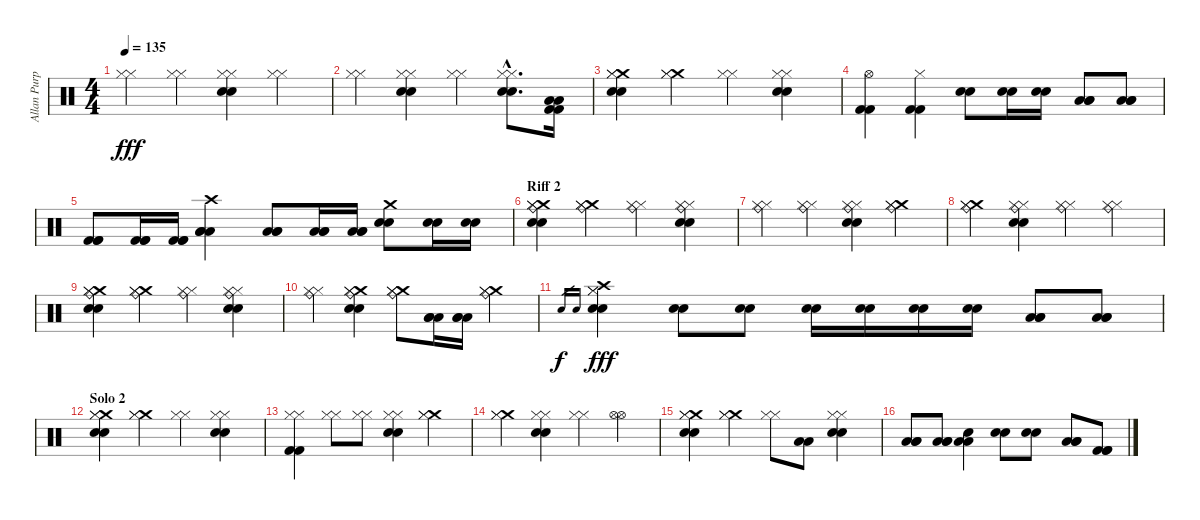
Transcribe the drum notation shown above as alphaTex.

\track ("Allan Purple" "Allan Purp") {instrument percussion}
\staff {score}
\articulation defaults
\ts (4 4)
\tempo 135
\clef neutral
\ks c
("Hi-Hat (closed)" "Hi-Hat (closed)").4{dy fff} ("Hi-Hat (closed)" "Hi-Hat (closed)").4 ("Hi-Hat (closed)" "Hi-Hat (closed)" "Electric Snare (hit)" "Electric Snare (hit)").4 ("Hi-Hat (closed)" "Hi-Hat (closed)").4 |
("Hi-Hat (closed)" "Hi-Hat (closed)").4 ("Hi-Hat (closed)" "Hi-Hat (closed)" "Electric Snare (hit)" "Electric Snare (hit)").4 ("Hi-Hat (closed)" "Hi-Hat (closed)").4 ("Hi-Hat (closed)"{hac} "Hi-Hat (closed)"{hac} "Electric Snare (hit)"{hac} "Electric Snare (hit)"{hac}).8{d} ("Kick (hit) 2" "Kick (hit) 2" "Low Tom (hit)" "Low Tom (hit)").16 |
("Crash medium (hit)" "Hi-Hat (closed)" "Hi-Hat (closed)" "Electric Snare (hit)" "Electric Snare (hit)").4 ("Crash medium (hit)" "Hi-Hat (closed)" "Hi-Hat (closed)").4 ("Hi-Hat (closed)" "Hi-Hat (closed)").4 ("Hi-Hat (closed)" "Hi-Hat (closed)" "Electric Snare (hit)" "Electric Snare (hit)").4 |
("Hi-Hat (open)" "Kick (hit) 2" "Kick (hit) 2").4 ("Hi-Hat (closed)" "Kick (hit) 2" "Kick (hit) 2").4 ("Electric Snare (hit)" "Electric Snare (hit)").8 ("Electric Snare (hit)" "Electric Snare (hit)").16 ("Electric Snare (hit)" "Electric Snare (hit)").16 ("Low Tom (hit)" "Low Tom (hit)" "Low Tom (hit)").8 ("Low Tom (hit)" "Low Tom (hit)" "Low Tom (hit)").8 |
("Kick (hit) 2" "Kick (hit) 2" "Kick (hit) 2").8 ("Kick (hit) 2" "Kick (hit) 2" "Kick (hit) 2").16 ("Kick (hit) 2" "Kick (hit) 2" "Kick (hit) 2").16 ("Crash high (hit)" "Low Tom (hit)" "Low Tom (hit)" "Low Tom (hit)").4 ("Low Tom (hit)" "Low Tom (hit)" "Low Tom (hit)").8 ("Low Floor Tom (hit)" "Low Floor Tom (hit)" "Low Floor Tom (hit)").16 ("Low Floor Tom (hit)" "Low Floor Tom (hit)" "Low Floor Tom (hit)").16 ("Crash medium (hit)" "Electric Snare (hit)" "Electric Snare (hit)").8 ("Electric Snare (hit)" "Electric Snare (hit)").16 ("Electric Snare (hit)" "Electric Snare (hit)").16 |
\section ("" "Riff 2")
("Crash medium (hit)" "Ride (bell)" "Hi-Hat (closed)" "Hi-Hat (closed)" "Electric Snare (hit)" "Electric Snare (hit)").4 ("Crash medium (hit)" "Ride (bell)" "Hi-Hat (closed)" "Hi-Hat (closed)").4 ("Ride (bell)" "Hi-Hat (closed)" "Hi-Hat (closed)").4 ("Ride (bell)" "Hi-Hat (closed)" "Hi-Hat (closed)" "Electric Snare (hit)" "Electric Snare (hit)").4 |
("Ride (bell)" "Hi-Hat (closed)" "Hi-Hat (closed)").4 ("Ride (bell)" "Hi-Hat (closed)" "Hi-Hat (closed)").4 ("Ride (bell)" "Hi-Hat (closed)" "Hi-Hat (closed)" "Electric Snare (hit)" "Electric Snare (hit)").4 ("Crash medium (hit)" "Ride (bell)" "Hi-Hat (closed)" "Hi-Hat (closed)").4 |
("Crash medium (hit)" "Ride (bell)" "Hi-Hat (closed)" "Hi-Hat (closed)").4 ("Ride (bell)" "Hi-Hat (closed)" "Hi-Hat (closed)" "Electric Snare (hit)" "Electric Snare (hit)").4 ("Ride (bell)" "Hi-Hat (closed)" "Hi-Hat (closed)").4 ("Ride (bell)" "Hi-Hat (closed)" "Hi-Hat (closed)").4 |
("Crash medium (hit)" "Ride (bell)" "Hi-Hat (closed)" "Hi-Hat (closed)" "Electric Snare (hit)" "Electric Snare (hit)").4 ("Crash medium (hit)" "Ride (bell)" "Hi-Hat (closed)" "Hi-Hat (closed)").4 ("Ride (bell)" "Hi-Hat (closed)" "Hi-Hat (closed)").4 ("Ride (bell)" "Hi-Hat (closed)" "Hi-Hat (closed)" "Electric Snare (hit)" "Electric Snare (hit)").4 |
("Ride (bell)" "Hi-Hat (closed)" "Hi-Hat (closed)").4 ("Crash medium (hit)" "Ride (bell)" "Hi-Hat (closed)" "Hi-Hat (closed)" "Electric Snare (hit)" "Electric Snare (hit)").4 ("Crash medium (hit)" "Ride (bell)" "Hi-Hat (closed)" "Hi-Hat (closed)").8 ("Low Tom (hit)" "Low Tom (hit)" "Low Tom (hit)").16 ("Low Tom (hit)" "Low Tom (hit)" "Low Tom (hit)").16 ("Crash medium (hit)" "Ride (bell)" "Hi-Hat (closed)" "Hi-Hat (closed)").4 |
"Electric Snare (hit)".16{gr dy f} "Electric Snare (hit)".16{gr} ("Crash high (hit)" "Hi-Hat (closed)" "Hi-Hat (closed)" "Electric Snare (hit)" "Electric Snare (hit)").4{dy fff} ("Electric Snare (hit)" "Electric Snare (hit)").8 ("Electric Snare (hit)" "Electric Snare (hit)").8 ("Electric Snare (hit)" "Electric Snare (hit)").16 ("Electric Snare (hit)" "Electric Snare (hit)").16 ("Electric Snare (hit)" "Electric Snare (hit)").16 ("Electric Snare (hit)" "Electric Snare (hit)").16 ("Low Tom (hit)" "Low Tom (hit)" "Low Tom (hit)").8 ("Low Tom (hit)" "Low Tom (hit)" "Low Tom (hit)").8 |
\section ("" "Solo 2")
("Crash medium (hit)" "Hi-Hat (closed)" "Hi-Hat (closed)" "Electric Snare (hit)" "Electric Snare (hit)").4 ("Crash medium (hit)" "Hi-Hat (closed)" "Hi-Hat (closed)").4 ("Hi-Hat (closed)" "Hi-Hat (closed)").4 ("Hi-Hat (closed)" "Hi-Hat (closed)" "Electric Snare (hit)" "Electric Snare (hit)").4 |
("Hi-Hat (closed)" "Hi-Hat (closed)" "Kick (hit) 2" "Kick (hit) 2").4 ("Hi-Hat (closed)" "Hi-Hat (closed)").8 ("Hi-Hat (closed)" "Hi-Hat (closed)").8 ("Hi-Hat (closed)" "Hi-Hat (closed)" "Electric Snare (hit)" "Electric Snare (hit)").4 ("Crash medium (hit)" "Hi-Hat (closed)" "Hi-Hat (closed)").4 |
("Crash medium (hit)" "Hi-Hat (closed)" "Hi-Hat (closed)").4 ("Hi-Hat (closed)" "Hi-Hat (closed)" "Electric Snare (hit)" "Electric Snare (hit)").4 ("Hi-Hat (closed)" "Hi-Hat (closed)").4 ("Hi-Hat (open)" "Hi-Hat (open)").4 |
("Crash medium (hit)" "Hi-Hat (closed)" "Hi-Hat (closed)" "Electric Snare (hit)" "Electric Snare (hit)").4 ("Crash medium (hit)" "Hi-Hat (closed)" "Hi-Hat (closed)").4 ("Hi-Hat (closed)" "Hi-Hat (closed)").8 ("Low Floor Tom (hit)" "Low Floor Tom (hit)").8 ("Hi-Hat (closed)" "Hi-Hat (closed)" "Electric Snare (hit)" "Electric Snare (hit)").4 |
("Low Tom (hit)" "Low Tom (hit)" "Low Tom (hit)").8 ("Low Floor Tom (hit)" "Low Floor Tom (hit)" "Low Floor Tom (hit)").8 ("Low Tom (hit)" "Low Tom (hit)" "Electric Snare (hit)").4 ("Electric Snare (hit)" "Electric Snare (hit)").8 ("Electric Snare (hit)" "Electric Snare (hit)").8 ("Low Tom (hit)" "Low Tom (hit)" "Low Tom (hit)").8 ("Kick (hit) 2" "Kick (hit) 2" "Kick (hit) 2").8
